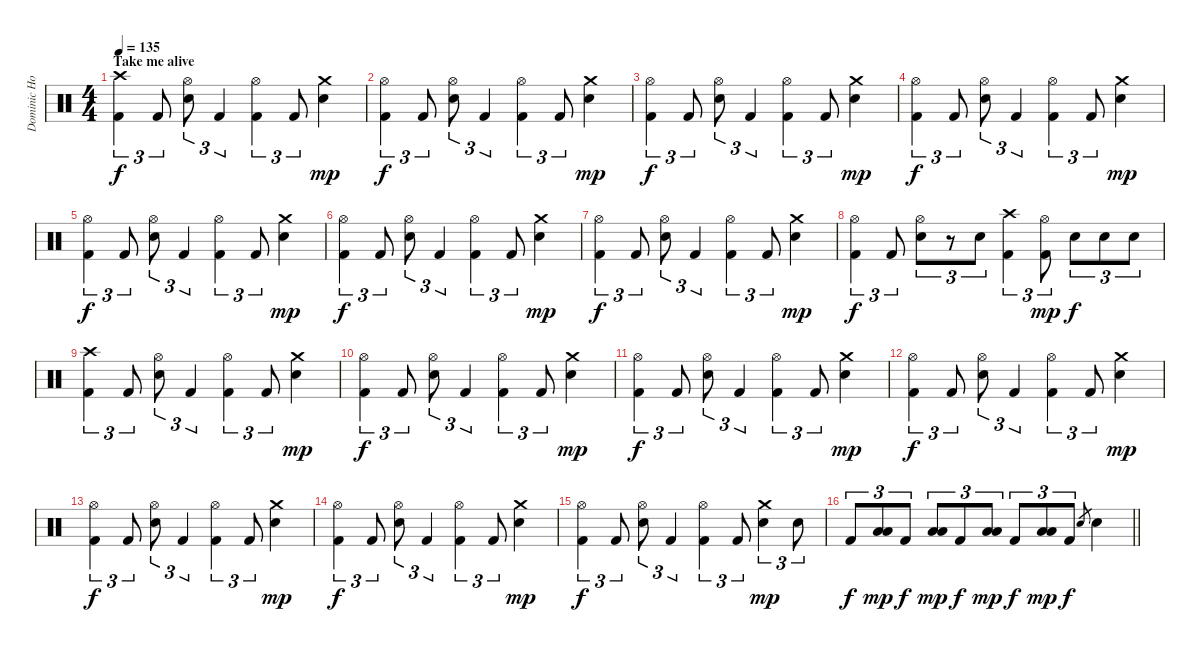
\track ("Dominic Howard (Drums)" "Dominic Ho") {instrument percussion}
\staff {score}
\articulation defaults
\ts (4 4)
\section ("" "Take me alive")
\tempo 135
\clef neutral
\ks c
("Crash high (hit)" "Kick (hit) 2").4{tu (3 2) dy f} "Kick (hit) 2".8{tu (3 2)} ("Hi-Hat (open)" "Electric Snare (hit)").8{tu (3 2)} "Kick (hit) 2".4{tu (3 2)} ("Hi-Hat (open)" "Kick (hit) 2").4{tu (3 2)} "Kick (hit) 2".8{tu (3 2)} ("Crash medium (hit)" "Electric Snare (hit)").4{dy mp} |
("Hi-Hat (open)" "Kick (hit) 2").4{tu (3 2) dy f} "Kick (hit) 2".8{tu (3 2)} ("Hi-Hat (open)" "Electric Snare (hit)").8{tu (3 2)} "Kick (hit) 2".4{tu (3 2)} ("Hi-Hat (open)" "Kick (hit) 2").4{tu (3 2)} "Kick (hit) 2".8{tu (3 2)} ("Crash medium (hit)" "Electric Snare (hit)").4{dy mp} |
("Hi-Hat (open)" "Kick (hit) 2").4{tu (3 2) dy f} "Kick (hit) 2".8{tu (3 2)} ("Hi-Hat (open)" "Electric Snare (hit)").8{tu (3 2)} "Kick (hit) 2".4{tu (3 2)} ("Hi-Hat (open)" "Kick (hit) 2").4{tu (3 2)} "Kick (hit) 2".8{tu (3 2)} ("Crash medium (hit)" "Electric Snare (hit)").4{dy mp} |
("Hi-Hat (open)" "Kick (hit) 2").4{tu (3 2) dy f} "Kick (hit) 2".8{tu (3 2)} ("Hi-Hat (open)" "Electric Snare (hit)").8{tu (3 2)} "Kick (hit) 2".4{tu (3 2)} ("Hi-Hat (open)" "Kick (hit) 2").4{tu (3 2)} "Kick (hit) 2".8{tu (3 2)} ("Crash medium (hit)" "Electric Snare (hit)").4{dy mp} |
("Hi-Hat (open)" "Kick (hit) 2").4{tu (3 2) dy f} "Kick (hit) 2".8{tu (3 2)} ("Hi-Hat (open)" "Electric Snare (hit)").8{tu (3 2)} "Kick (hit) 2".4{tu (3 2)} ("Hi-Hat (open)" "Kick (hit) 2").4{tu (3 2)} "Kick (hit) 2".8{tu (3 2)} ("Crash medium (hit)" "Electric Snare (hit)").4{dy mp} |
("Hi-Hat (open)" "Kick (hit) 2").4{tu (3 2) dy f} "Kick (hit) 2".8{tu (3 2)} ("Hi-Hat (open)" "Electric Snare (hit)").8{tu (3 2)} "Kick (hit) 2".4{tu (3 2)} ("Hi-Hat (open)" "Kick (hit) 2").4{tu (3 2)} "Kick (hit) 2".8{tu (3 2)} ("Crash medium (hit)" "Electric Snare (hit)").4{dy mp} |
("Hi-Hat (open)" "Kick (hit) 2").4{tu (3 2) dy f} "Kick (hit) 2".8{tu (3 2)} ("Hi-Hat (open)" "Electric Snare (hit)").8{tu (3 2)} "Kick (hit) 2".4{tu (3 2)} ("Hi-Hat (open)" "Kick (hit) 2").4{tu (3 2)} "Kick (hit) 2".8{tu (3 2)} ("Crash medium (hit)" "Electric Snare (hit)").4{dy mp} |
("Hi-Hat (open)" "Kick (hit) 2").4{tu (3 2) dy f} "Kick (hit) 2".8{tu (3 2)} ("Hi-Hat (open)" "Electric Snare (hit)").8{tu (3 2)} r.8{tu (3 2)} "Electric Snare (hit)".8{tu (3 2)} ("Crash high (hit)" "Kick (hit) 2").4{tu (3 2)} ("Hi-Hat (open)" "Kick (hit) 2").8{tu (3 2) dy mp} "Electric Snare (hit)".8{tu (3 2) dy f} "Electric Snare (hit)".8{tu (3 2)} "Electric Snare (hit)".8{tu (3 2)} |
("Crash high (hit)" "Kick (hit) 2").4{tu (3 2)} "Kick (hit) 2".8{tu (3 2)} ("Hi-Hat (open)" "Electric Snare (hit)").8{tu (3 2)} "Kick (hit) 2".4{tu (3 2)} ("Hi-Hat (open)" "Kick (hit) 2").4{tu (3 2)} "Kick (hit) 2".8{tu (3 2)} ("Crash medium (hit)" "Electric Snare (hit)").4{dy mp} |
("Hi-Hat (open)" "Kick (hit) 2").4{tu (3 2) dy f} "Kick (hit) 2".8{tu (3 2)} ("Hi-Hat (open)" "Electric Snare (hit)").8{tu (3 2)} "Kick (hit) 2".4{tu (3 2)} ("Hi-Hat (open)" "Kick (hit) 2").4{tu (3 2)} "Kick (hit) 2".8{tu (3 2)} ("Crash medium (hit)" "Electric Snare (hit)").4{dy mp} |
("Hi-Hat (open)" "Kick (hit) 2").4{tu (3 2) dy f} "Kick (hit) 2".8{tu (3 2)} ("Hi-Hat (open)" "Electric Snare (hit)").8{tu (3 2)} "Kick (hit) 2".4{tu (3 2)} ("Hi-Hat (open)" "Kick (hit) 2").4{tu (3 2)} "Kick (hit) 2".8{tu (3 2)} ("Crash medium (hit)" "Electric Snare (hit)").4{dy mp} |
("Hi-Hat (open)" "Kick (hit) 2").4{tu (3 2) dy f} "Kick (hit) 2".8{tu (3 2)} ("Hi-Hat (open)" "Electric Snare (hit)").8{tu (3 2)} "Kick (hit) 2".4{tu (3 2)} ("Hi-Hat (open)" "Kick (hit) 2").4{tu (3 2)} "Kick (hit) 2".8{tu (3 2)} ("Crash medium (hit)" "Electric Snare (hit)").4{dy mp} |
("Hi-Hat (open)" "Kick (hit) 2").4{tu (3 2) dy f} "Kick (hit) 2".8{tu (3 2)} ("Hi-Hat (open)" "Electric Snare (hit)").8{tu (3 2)} "Kick (hit) 2".4{tu (3 2)} ("Hi-Hat (open)" "Kick (hit) 2").4{tu (3 2)} "Kick (hit) 2".8{tu (3 2)} ("Crash medium (hit)" "Electric Snare (hit)").4{dy mp} |
("Hi-Hat (open)" "Kick (hit) 2").4{tu (3 2) dy f} "Kick (hit) 2".8{tu (3 2)} ("Hi-Hat (open)" "Electric Snare (hit)").8{tu (3 2)} "Kick (hit) 2".4{tu (3 2)} ("Hi-Hat (open)" "Kick (hit) 2").4{tu (3 2)} "Kick (hit) 2".8{tu (3 2)} ("Crash medium (hit)" "Electric Snare (hit)").4{dy mp} |
("Hi-Hat (open)" "Kick (hit) 2").4{tu (3 2) dy f} "Kick (hit) 2".8{tu (3 2)} ("Hi-Hat (open)" "Electric Snare (hit)").8{tu (3 2)} "Kick (hit) 2".4{tu (3 2)} ("Hi-Hat (open)" "Kick (hit) 2").4{tu (3 2)} "Kick (hit) 2".8{tu (3 2)} ("Crash medium (hit)" "Electric Snare (hit)").4{tu (3 2) dy mp} "Electric Snare (hit)".8{tu (3 2)} |
\barLineRight lightlight "Kick (hit) 2".8{tu (3 2) dy f}
("Low Tom (hit)" "Low Floor Tom (hit)").8{tu (3 2) dy mp} "Kick (hit) 2".8{tu (3 2) dy f} ("Low Tom (hit)" "Low Floor Tom (hit)").8{tu (3 2) dy mp} "Kick (hit) 2".8{tu (3 2) dy f} ("Low Tom (hit)" "Low Floor Tom (hit)").8{tu (3 2) dy mp} "Kick (hit) 2".8{tu (3 2) dy f} ("Low Tom (hit)" "Low Floor Tom (hit)").8{tu (3 2) dy mp} "Kick (hit) 2".8{tu (3 2) dy f} "Electric Snare (hit)".8{gr} "Electric Snare (hit)".4
